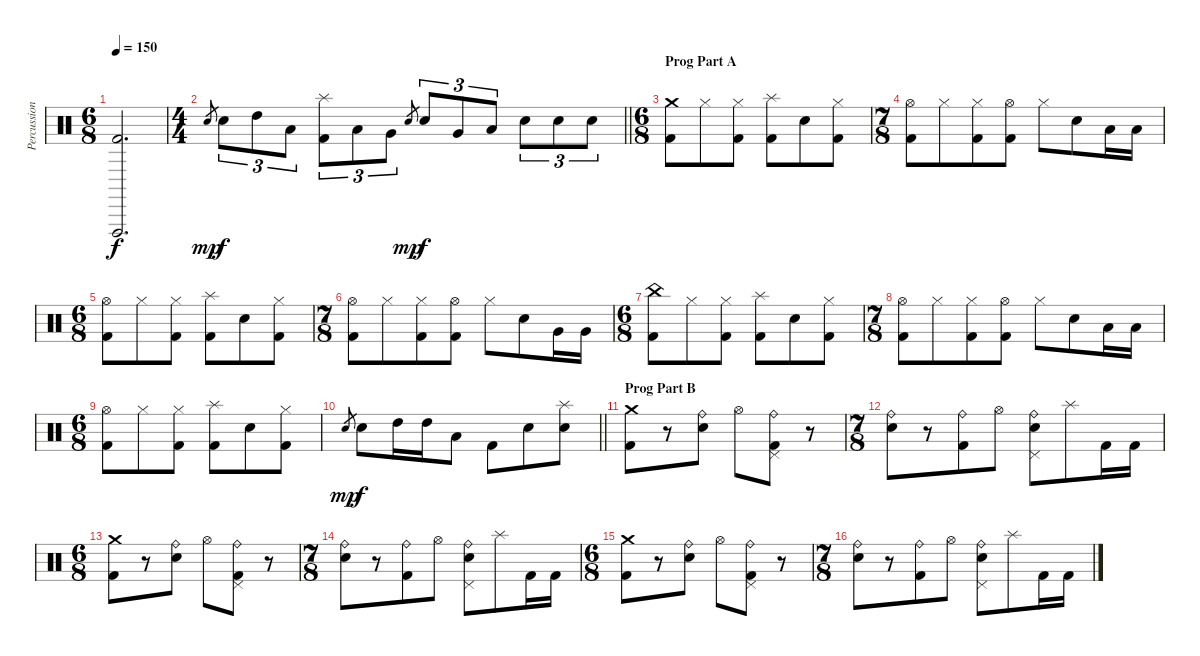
\track ("Percussions" "Percussion") {instrument percussion}
\staff {score}
\articulation defaults
\ts (6 8)
\tempo 150
\clef neutral
\ks c
("Vibraslap (hit)" "Kick (hit) 2").2{d dy f} |
\ts (4 4)
\barLineRight lightlight "Snare (hit) 2".8{gr dy mp} "Snare (hit) 2".8{tu (3 2) dy f} "High Tom (hit)".8{tu (3 2)} "Low Tom (hit)".8{tu (3 2)}
("Splash (hit)" "Kick (hit) 2").8{tu (3 2)} "Low Tom (hit)".8{tu (3 2)} "Very Low Tom (hit)".8{tu (3 2)} "Snare (hit) 2".8{gr dy mp} "Snare (hit) 2".8{tu (3 2) dy f} "Very Low Tom (hit)".8{tu (3 2)} "Low Floor Tom (hit)".8{tu (3 2)} "Snare (hit) 2".8{tu (3 2)} "Snare (hit) 2".8{tu (3 2)} "Snare (hit) 2".8{tu (3 2)} |
\ts (6 8)
\section ("" "Prog Part A")
("Crash medium (hit)" "Kick (hit) 2").8 "Hi-Hat (closed)".8 ("Hi-Hat (closed)" "Kick (hit) 2").8 ("Splash (hit)" "Kick (hit) 2").8 "Snare (hit) 2".8 ("Hi-Hat (closed)" "Kick (hit) 2").8 |
\ts (7 8)
("Hi-Hat (open)" "Kick (hit) 2").8 "Hi-Hat (closed)".8 ("Hi-Hat (closed)" "Kick (hit) 2").8 ("Hi-Hat (open)" "Kick (hit) 2").8 "Hi-Hat (closed)".8 "Snare (hit) 2".8 "Low Tom (hit)".16 "Low Tom (hit)".16 |
\ts (6 8)
("Hi-Hat (open)" "Kick (hit) 2").8 "Hi-Hat (closed)".8 ("Hi-Hat (closed)" "Kick (hit) 2").8 ("Splash (hit)" "Kick (hit) 2").8 "Snare (hit) 2".8 ("Hi-Hat (closed)" "Kick (hit) 2").8 |
\ts (7 8)
("Hi-Hat (open)" "Kick (hit) 2").8 "Hi-Hat (closed)".8 ("Hi-Hat (closed)" "Kick (hit) 2").8 ("Hi-Hat (open)" "Kick (hit) 2").8 "Hi-Hat (closed)".8 "Snare (hit) 2".8 "Very Low Tom (hit)".16 "Very Low Tom (hit)".16 |
\ts (6 8)
("China (hit)" "Kick (hit) 2").8 "Hi-Hat (closed)".8 ("Hi-Hat (closed)" "Kick (hit) 2").8 ("Splash (hit)" "Kick (hit) 2").8 "Snare (hit) 2".8 ("Hi-Hat (closed)" "Kick (hit) 2").8 |
\ts (7 8)
("Hi-Hat (open)" "Kick (hit) 2").8 "Hi-Hat (closed)".8 ("Hi-Hat (closed)" "Kick (hit) 2").8 ("Hi-Hat (open)" "Kick (hit) 2").8 "Hi-Hat (closed)".8 "Snare (hit) 2".8 "Low Tom (hit)".16 "Low Tom (hit)".16 |
\ts (6 8)
("Hi-Hat (open)" "Kick (hit) 2").8 "Hi-Hat (closed)".8 ("Hi-Hat (closed)" "Kick (hit) 2").8 ("Splash (hit)" "Kick (hit) 2").8 "Snare (hit) 2".8 ("Hi-Hat (closed)" "Kick (hit) 2").8 |
\barLineRight lightlight "Snare (hit) 2".8{gr dy mp} "Snare (hit) 2".8{dy f} "High Tom (hit)".16 "High Tom (hit)".16 "Low Tom (hit)".8 "Kick (hit) 2".8 "Snare (hit) 2".8
("Splash (hit)" "Snare (hit) 2").8 |
\section ("" "Prog Part B")
("Crash medium (hit)" "Kick (hit) 2").8 r.8 ("Ride (bell)" "Snare (hit) 2").8 "Hi-Hat (open)".8 ("Ride (bell)" "Pedal Hi-Hat (hit)" "Kick (hit) 2").8 r.8 |
\ts (7 8)
("Ride (bell)" "Snare (hit) 2").8 r.8 ("Ride (bell)" "Kick (hit) 2").8 "Hi-Hat (open)".8 ("Ride (bell)" "Pedal Hi-Hat (hit)" "Snare (hit) 2").8 "Splash (hit)".8 "Kick (hit) 2".16 "Kick (hit) 2".16 |
\ts (6 8)
("Crash medium (hit)" "Kick (hit) 2").8 r.8 ("Ride (bell)" "Snare (hit) 2").8 "Hi-Hat (open)".8 ("Ride (bell)" "Pedal Hi-Hat (hit)" "Kick (hit) 2").8 r.8 |
\ts (7 8)
("Ride (bell)" "Snare (hit) 2").8 r.8 ("Ride (bell)" "Kick (hit) 2").8 "Hi-Hat (open)".8 ("Ride (bell)" "Pedal Hi-Hat (hit)" "Snare (hit) 2").8 "Splash (hit)".8 "Kick (hit) 2".16 "Kick (hit) 2".16 |
\ts (6 8)
("Crash medium (hit)" "Kick (hit) 2").8 r.8 ("Ride (bell)" "Snare (hit) 2").8 "Hi-Hat (open)".8 ("Ride (bell)" "Pedal Hi-Hat (hit)" "Kick (hit) 2").8 r.8 |
\ts (7 8)
("Ride (bell)" "Snare (hit) 2").8 r.8 ("Ride (bell)" "Kick (hit) 2").8 "Hi-Hat (open)".8 ("Ride (bell)" "Pedal Hi-Hat (hit)" "Snare (hit) 2").8 "Splash (hit)".8 "Kick (hit) 2".16 "Kick (hit) 2".16
